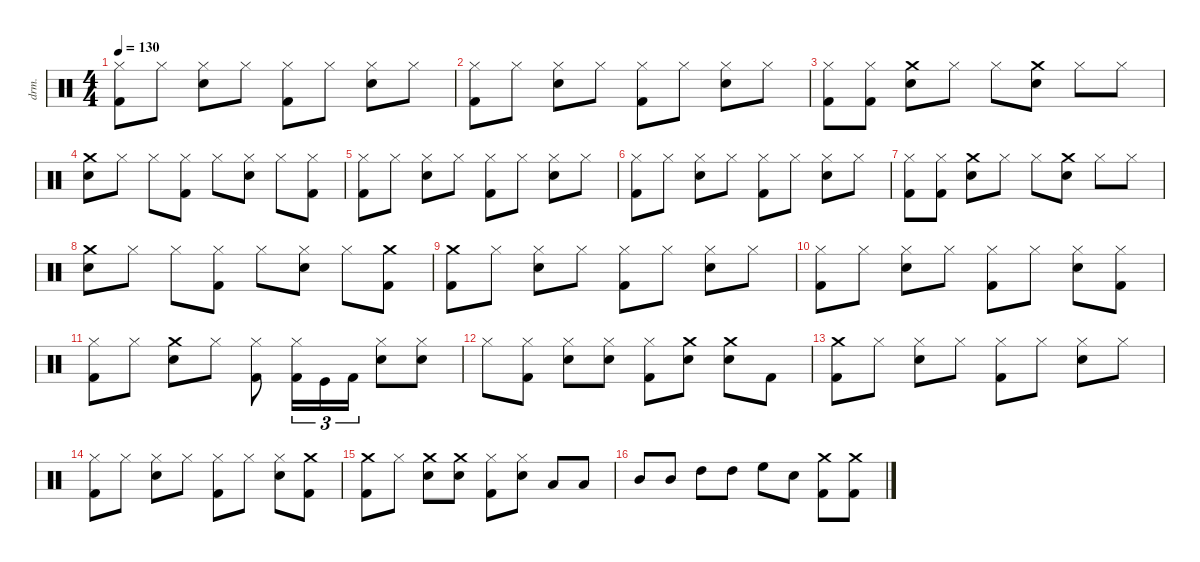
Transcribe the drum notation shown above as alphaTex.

\defaultSystemsLayout 4
\hideDynamics
\bracketExtendMode nobrackets
\otherSystemsTrackNameOrientation horizontal
\track ("Lars Ulrich (Drums)" "drm.") {instrument percussion}
\staff {score}
\articulation defaults
\ts (4 4)
\tempo 130
\clef neutral
\ks c
("Hi-Hat (closed)" "Kick (hit) 2").8{dy f beam Down} "Hi-Hat (closed)".8{beam Down} ("Snare (hit) 2" "Hi-Hat (closed)").8{beam Down} "Hi-Hat (closed)".8{beam Down} ("Hi-Hat (closed)" "Kick (hit) 2").8{beam Down} "Hi-Hat (closed)".8{beam Down} ("Snare (hit) 2" "Hi-Hat (closed)").8{beam Down} "Hi-Hat (closed)".8{beam Down} |
("Hi-Hat (closed)" "Kick (hit) 2").8{beam Down} "Hi-Hat (closed)".8{beam Down} ("Snare (hit) 2" "Hi-Hat (closed)").8{beam Down} "Hi-Hat (closed)".8{beam Down} ("Hi-Hat (closed)" "Kick (hit) 2").8{beam Down} "Hi-Hat (closed)".8{beam Down} ("Snare (hit) 2" "Hi-Hat (closed)").8{beam Down} "Hi-Hat (closed)".8{beam Down} |
("Hi-Hat (closed)" "Kick (hit) 2").8{beam Down} ("Hi-Hat (closed)" "Kick (hit) 2").8{beam Down} ("Crash medium (hit)" "Snare (hit) 2").8{beam Down} "Hi-Hat (closed)".8{beam Down} "Hi-Hat (closed)".8{beam Down} ("Crash medium (hit)" "Snare (hit) 2").8{beam Down} "Hi-Hat (closed)".8{beam Down} "Hi-Hat (closed)".8{beam Down} |
("Crash medium (hit)" "Snare (hit) 2").8{beam Down} "Hi-Hat (closed)".8{beam Down} "Hi-Hat (closed)".8{beam Down} ("Kick (hit) 2" "Hi-Hat (closed)").8{beam Down} "Hi-Hat (closed)".8{beam Down} ("Snare (hit) 2" "Hi-Hat (closed)").8{beam Down} "Hi-Hat (closed)".8{beam Down} ("Hi-Hat (closed)" "Kick (hit) 2").8{beam Down} |
("Hi-Hat (closed)" "Kick (hit) 2").8{beam Down} "Hi-Hat (closed)".8{beam Down} ("Snare (hit) 2" "Hi-Hat (closed)").8{beam Down} "Hi-Hat (closed)".8{beam Down} ("Hi-Hat (closed)" "Kick (hit) 2").8{beam Down} "Hi-Hat (closed)".8{beam Down} ("Snare (hit) 2" "Hi-Hat (closed)").8{beam Down} "Hi-Hat (closed)".8{beam Down} |
("Hi-Hat (closed)" "Kick (hit) 2").8{beam Down} "Hi-Hat (closed)".8{beam Down} ("Snare (hit) 2" "Hi-Hat (closed)").8{beam Down} "Hi-Hat (closed)".8{beam Down} ("Hi-Hat (closed)" "Kick (hit) 2").8{beam Down} "Hi-Hat (closed)".8{beam Down} ("Snare (hit) 2" "Hi-Hat (closed)").8{beam Down} "Hi-Hat (closed)".8{beam Down} |
("Hi-Hat (closed)" "Kick (hit) 2").8{beam Down} ("Hi-Hat (closed)" "Kick (hit) 2").8{beam Down} ("Crash medium (hit)" "Snare (hit) 2").8{beam Down} "Hi-Hat (closed)".8{beam Down} "Hi-Hat (closed)".8{beam Down} ("Crash medium (hit)" "Snare (hit) 2").8{beam Down} "Hi-Hat (closed)".8{beam Down} "Hi-Hat (closed)".8{beam Down} |
("Crash medium (hit)" "Snare (hit) 2").8{beam Down} "Hi-Hat (closed)".8{beam Down} "Hi-Hat (closed)".8{beam Down} ("Kick (hit) 2" "Hi-Hat (closed)").8{beam Down} "Hi-Hat (closed)".8{beam Down} ("Snare (hit) 2" "Hi-Hat (closed)").8{beam Down} "Hi-Hat (closed)".8{beam Down} ("Crash medium (hit)" "Kick (hit) 2").8{beam Down} |
("Crash medium (hit)" "Kick (hit) 2").8{beam Down} "Hi-Hat (closed)".8{beam Down} ("Snare (hit) 2" "Hi-Hat (closed)").8{beam Down} "Hi-Hat (closed)".8{beam Down} ("Hi-Hat (closed)" "Kick (hit) 2").8{beam Down} "Hi-Hat (closed)".8{beam Down} ("Snare (hit) 2" "Hi-Hat (closed)").8{beam Down} "Hi-Hat (closed)".8{beam Down} |
("Hi-Hat (closed)" "Kick (hit) 2").8{beam Down} "Hi-Hat (closed)".8{beam Down} ("Snare (hit) 2" "Hi-Hat (closed)").8{beam Down} "Hi-Hat (closed)".8{beam Down} ("Hi-Hat (closed)" "Kick (hit) 2").8{beam Down} "Hi-Hat (closed)".8{beam Down} ("Snare (hit) 2" "Hi-Hat (closed)").8{beam Down} ("Hi-Hat (closed)" "Kick (hit) 2").8{beam Down} |
("Kick (hit) 2" "Hi-Hat (closed)").8{beam Down} "Hi-Hat (closed)".8{beam Down} ("Crash medium (hit)" "Snare (hit) 2").8{beam Down} "Hi-Hat (closed)".8{beam Down} ("Kick (hit) 2" "Hi-Hat (closed)").8{beam Down} ("Kick (hit) 2" "Hi-Hat (closed)").16{tu (3 2) beam Down} "Kick (hit)".16{tu (3 2) beam Down} "Kick (hit) 2".16{tu (3 2) beam Down} ("Snare (hit) 2" "Hi-Hat (closed)").8{beam Down} ("Snare (hit) 2" "Hi-Hat (closed)").8{beam Down} |
"Hi-Hat (closed)".8{beam Down} ("Kick (hit) 2" "Hi-Hat (closed)").8{beam Down} ("Snare (hit) 2" "Hi-Hat (closed)").8{beam Down} ("Hi-Hat (closed)" "Snare (hit) 2").8{beam Down} ("Kick (hit) 2" "Hi-Hat (closed)").8{beam Down} ("Crash medium (hit)" "Snare (hit) 2").8{beam Down} ("Snare (hit) 2" "Crash medium (hit)").8{beam Down} "Kick (hit) 2".8{beam Down} |
("Crash medium (hit)" "Kick (hit) 2").8{beam Down} "Hi-Hat (closed)".8{beam Down} ("Snare (hit) 2" "Hi-Hat (closed)").8{beam Down} "Hi-Hat (closed)".8{beam Down} ("Hi-Hat (closed)" "Kick (hit) 2").8{beam Down} "Hi-Hat (closed)".8{beam Down} ("Snare (hit) 2" "Hi-Hat (closed)").8{beam Down} "Hi-Hat (closed)".8{beam Down} |
("Hi-Hat (closed)" "Kick (hit) 2").8{beam Down} "Hi-Hat (closed)".8{beam Down} ("Snare (hit) 2" "Hi-Hat (closed)").8{beam Down} "Hi-Hat (closed)".8{beam Down} ("Hi-Hat (closed)" "Kick (hit) 2").8{beam Down} "Hi-Hat (closed)".8{beam Down} ("Snare (hit) 2" "Hi-Hat (closed)").8{beam Down} ("Crash medium (hit)" "Kick (hit) 2").8{beam Down} |
("Crash medium (hit)" "Kick (hit) 2").8{beam Down} "Hi-Hat (closed)".8{beam Down} ("Crash medium (hit)" "Snare (hit) 2").8{beam Down} ("Crash medium (hit)" "Snare (hit) 2").8{beam Down} ("Hi-Hat (closed)" "Kick (hit) 2").8{beam Down} ("Snare (hit) 2" "Hi-Hat (closed)").8{beam Down} "Low Tom (hit)".8{beam Up} "Low Tom (hit)".8{beam Up} |
"Mid Tom (hit)".8{beam Up} "Mid Tom (hit)".8{beam Up} "High Tom (hit)".8{beam Down} "High Tom (hit)".8{beam Down} "High Floor Tom (hit)".8{beam Down} "Snare (hit) 2".8{beam Down} ("Crash medium (hit)" "Kick (hit) 2").8{beam Down} ("Crash medium (hit)" "Kick (hit) 2").8{beam Down}
